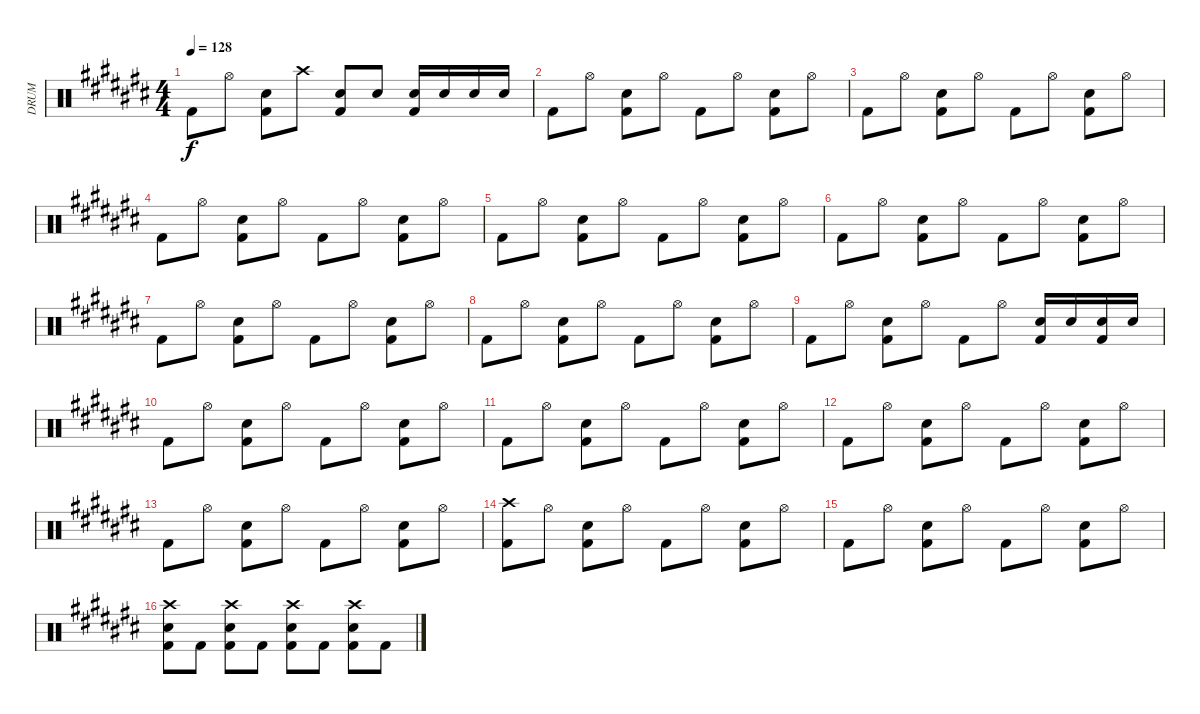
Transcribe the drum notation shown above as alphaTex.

\track ("DRUM" "DRUM") {instrument percussion}
\staff {score}
\articulation defaults
\ts (4 4)
\tempo 128
\clef neutral
\ks c# "Kick (hit) 2".8{dy f} "Hi-Hat (open)".8
("Electric Snare (hit)" "Kick (hit) 2").8 "Crash high (hit)".8 ("Electric Snare (hit)" "Kick (hit) 2").8 "Electric Snare (hit)".8 ("Electric Snare (hit)" "Kick (hit) 2").16 "Electric Snare (hit)".16 "Electric Snare (hit)".16 "Electric Snare (hit)".16 |
"Kick (hit) 2".8 "Hi-Hat (open)".8 ("Electric Snare (hit)" "Kick (hit) 2").8 "Hi-Hat (open)".8 "Kick (hit) 2".8 "Hi-Hat (open)".8 ("Electric Snare (hit)" "Kick (hit) 2").8 "Hi-Hat (open)".8 |
"Kick (hit) 2".8 "Hi-Hat (open)".8 ("Electric Snare (hit)" "Kick (hit) 2").8 "Hi-Hat (open)".8 "Kick (hit) 2".8 "Hi-Hat (open)".8 ("Electric Snare (hit)" "Kick (hit) 2").8 "Hi-Hat (open)".8 |
"Kick (hit) 2".8 "Hi-Hat (open)".8 ("Electric Snare (hit)" "Kick (hit) 2").8 "Hi-Hat (open)".8 "Kick (hit) 2".8 "Hi-Hat (open)".8 ("Electric Snare (hit)" "Kick (hit) 2").8 "Hi-Hat (open)".8 |
"Kick (hit) 2".8 "Hi-Hat (open)".8 ("Electric Snare (hit)" "Kick (hit) 2").8 "Hi-Hat (open)".8 "Kick (hit) 2".8 "Hi-Hat (open)".8 ("Electric Snare (hit)" "Kick (hit) 2").8 "Hi-Hat (open)".8 |
"Kick (hit) 2".8 "Hi-Hat (open)".8 ("Electric Snare (hit)" "Kick (hit) 2").8 "Hi-Hat (open)".8 "Kick (hit) 2".8 "Hi-Hat (open)".8 ("Electric Snare (hit)" "Kick (hit) 2").8 "Hi-Hat (open)".8 |
"Kick (hit) 2".8 "Hi-Hat (open)".8 ("Electric Snare (hit)" "Kick (hit) 2").8 "Hi-Hat (open)".8 "Kick (hit) 2".8 "Hi-Hat (open)".8 ("Electric Snare (hit)" "Kick (hit) 2").8 "Hi-Hat (open)".8 |
"Kick (hit) 2".8 "Hi-Hat (open)".8 ("Electric Snare (hit)" "Kick (hit) 2").8 "Hi-Hat (open)".8 "Kick (hit) 2".8 "Hi-Hat (open)".8 ("Electric Snare (hit)" "Kick (hit) 2").8 "Hi-Hat (open)".8 |
"Kick (hit) 2".8 "Hi-Hat (open)".8 ("Electric Snare (hit)" "Kick (hit) 2").8 "Hi-Hat (open)".8 "Kick (hit) 2".8 "Hi-Hat (open)".8 ("Electric Snare (hit)" "Kick (hit) 2").16 "Electric Snare (hit)".16 ("Electric Snare (hit)" "Kick (hit) 2").16 "Electric Snare (hit)".16 |
"Kick (hit) 2".8 "Hi-Hat (open)".8 ("Electric Snare (hit)" "Kick (hit) 2").8 "Hi-Hat (open)".8 "Kick (hit) 2".8 "Hi-Hat (open)".8 ("Electric Snare (hit)" "Kick (hit) 2").8 "Hi-Hat (open)".8 |
"Kick (hit) 2".8 "Hi-Hat (open)".8 ("Electric Snare (hit)" "Kick (hit) 2").8 "Hi-Hat (open)".8 "Kick (hit) 2".8 "Hi-Hat (open)".8 ("Electric Snare (hit)" "Kick (hit) 2").8 "Hi-Hat (open)".8 |
"Kick (hit) 2".8 "Hi-Hat (open)".8 ("Electric Snare (hit)" "Kick (hit) 2").8 "Hi-Hat (open)".8 "Kick (hit) 2".8 "Hi-Hat (open)".8 ("Electric Snare (hit)" "Kick (hit) 2").8 "Hi-Hat (open)".8 |
"Kick (hit) 2".8 "Hi-Hat (open)".8 ("Electric Snare (hit)" "Kick (hit) 2").8 "Hi-Hat (open)".8 "Kick (hit) 2".8 "Hi-Hat (open)".8 ("Electric Snare (hit)" "Kick (hit) 2").8 "Hi-Hat (open)".8 |
("Crash high (hit)" "Kick (hit) 2").8 "Hi-Hat (open)".8 ("Electric Snare (hit)" "Kick (hit) 2").8 "Hi-Hat (open)".8 "Kick (hit) 2".8 "Hi-Hat (open)".8 ("Electric Snare (hit)" "Kick (hit) 2").8 "Hi-Hat (open)".8 |
"Kick (hit) 2".8 "Hi-Hat (open)".8 ("Electric Snare (hit)" "Kick (hit) 2").8 "Hi-Hat (open)".8 "Kick (hit) 2".8 "Hi-Hat (open)".8 ("Electric Snare (hit)" "Kick (hit) 2").8 "Hi-Hat (open)".8 |
("Crash high (hit)" "Electric Snare (hit)" "Kick (hit) 2").8 "Kick (hit) 2".8 ("Crash high (hit)" "Electric Snare (hit)" "Kick (hit) 2").8 "Kick (hit) 2".8 ("Crash high (hit)" "Electric Snare (hit)" "Kick (hit) 2").8 "Kick (hit) 2".8 ("Crash high (hit)" "Electric Snare (hit)" "Kick (hit) 2").8 "Kick (hit) 2".8
